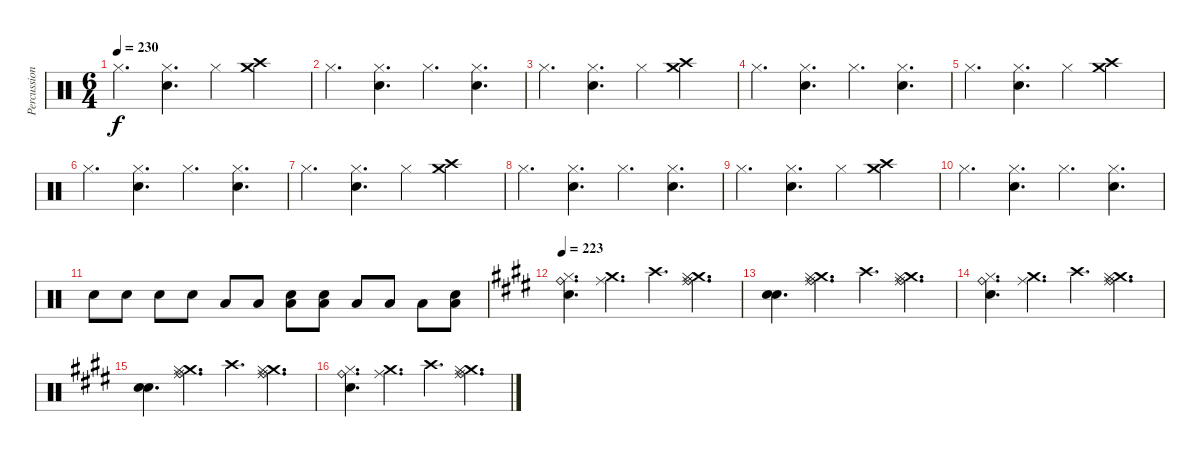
\track ("Percussion" "Percussion") {instrument percussion}
\staff {score}
\articulation defaults
\ts (6 4)
\tempo 230
\clef neutral
\ks c "Hi-Hat (closed)".4{d dy f}
("Hi-Hat (closed)" "Snare (hit) 2").4{d} "Hi-Hat (closed)".4 ("Crash high (hit)" "Crash medium (hit)").2 |
"Hi-Hat (closed)".4{d} ("Hi-Hat (closed)" "Snare (hit) 2").4{d} "Hi-Hat (closed)".4{d} ("Hi-Hat (closed)" "Snare (hit) 2").4{d} |
"Hi-Hat (closed)".4{d} ("Hi-Hat (closed)" "Snare (hit) 2").4{d} "Hi-Hat (closed)".4 ("Crash high (hit)" "Crash medium (hit)").2 |
"Hi-Hat (closed)".4{d} ("Hi-Hat (closed)" "Snare (hit) 2").4{d} "Hi-Hat (closed)".4{d} ("Hi-Hat (closed)" "Snare (hit) 2").4{d} |
"Hi-Hat (closed)".4{d} ("Hi-Hat (closed)" "Snare (hit) 2").4{d} "Hi-Hat (closed)".4 ("Crash high (hit)" "Crash medium (hit)").2 |
"Hi-Hat (closed)".4{d} ("Hi-Hat (closed)" "Snare (hit) 2").4{d} "Hi-Hat (closed)".4{d} ("Hi-Hat (closed)" "Snare (hit) 2").4{d} |
"Hi-Hat (closed)".4{d} ("Hi-Hat (closed)" "Snare (hit) 2").4{d} "Hi-Hat (closed)".4 ("Crash high (hit)" "Crash medium (hit)").2 |
"Hi-Hat (closed)".4{d} ("Hi-Hat (closed)" "Snare (hit) 2").4{d} "Hi-Hat (closed)".4{d} ("Hi-Hat (closed)" "Snare (hit) 2").4{d} |
"Hi-Hat (closed)".4{d} ("Hi-Hat (closed)" "Snare (hit) 2").4{d} "Hi-Hat (closed)".4 ("Crash high (hit)" "Crash medium (hit)").2 |
"Hi-Hat (closed)".4{d} ("Hi-Hat (closed)" "Snare (hit) 2").4{d} "Hi-Hat (closed)".4{d} ("Hi-Hat (closed)" "Snare (hit) 2").4{d} |
"Snare (hit) 2".8 "Snare (hit) 2".8 "Snare (hit) 2".8 "Snare (hit) 2".8 "Low Tom (hit)".8 "Low Tom (hit)".8 ("Low Tom (hit)" "Snare (hit) 2").8 ("Low Tom (hit)" "Snare (hit) 2").8 "Low Tom (hit)".8 "Low Tom (hit)".8 "Low Tom (hit)".8 ("Low Tom (hit)" "Snare (hit) 2").8 |
\tempo 223
\ks e
("Hi-Hat (closed)" "Snare (hit) 2" "Ride (bell)").4{d} ("Ride (middle)" "Crash medium (hit)").4{d} "Crash high (hit)".4{d} ("Ride (middle)" "Crash medium (hit)" "Hi-Hat (closed)" "Ride (bell)").4{d} |
("Snare (hit) 2" "Snare (hit) 2").4{d} ("Ride (middle)" "Crash medium (hit)" "Hi-Hat (closed)" "Ride (bell)").4{d} "Crash high (hit)".4{d} ("Ride (middle)" "Crash medium (hit)" "Hi-Hat (closed)" "Ride (bell)").4{d} |
("Hi-Hat (closed)" "Snare (hit) 2" "Ride (bell)").4{d} ("Ride (middle)" "Crash medium (hit)").4{d} "Crash high (hit)".4{d} ("Ride (middle)" "Crash medium (hit)" "Hi-Hat (closed)" "Ride (bell)").4{d} |
("Snare (hit) 2" "Snare (hit) 2").4{d} ("Ride (middle)" "Crash medium (hit)" "Hi-Hat (closed)" "Ride (bell)").4{d} "Crash high (hit)".4{d} ("Ride (middle)" "Crash medium (hit)" "Hi-Hat (closed)" "Ride (bell)").4{d} |
("Hi-Hat (closed)" "Snare (hit) 2" "Ride (bell)").4{d} ("Ride (middle)" "Crash medium (hit)").4{d} "Crash high (hit)".4{d} ("Ride (middle)" "Crash medium (hit)" "Hi-Hat (closed)" "Ride (bell)").4{d}
